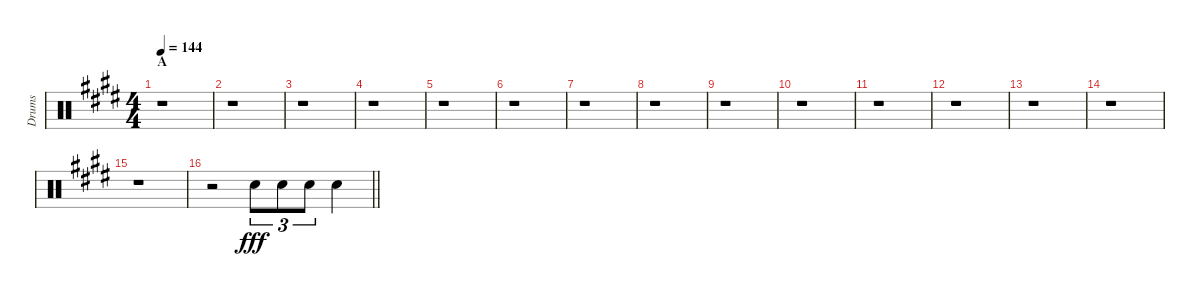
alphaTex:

\track ("Drums" "Drums") {instrument percussion}
\staff {score}
\articulation defaults
\ts (4 4)
\section ("" "A")
\tempo 144
\clef neutral
\ks e
r.1{dy fff} |
r.1 |
r.1 |
r.1 |
r.1 |
r.1 |
r.1 |
r.1 |
r.1 |
r.1 |
r.1 |
r.1 |
r.1 |
r.1 |
r.1 |
\barLineRight lightlight
r.2 "Snare (hit) 2".8{tu (3 2)} "Snare (hit) 2".8{tu (3 2)} "Snare (hit) 2".8{tu (3 2)} "Snare (hit) 2".4
